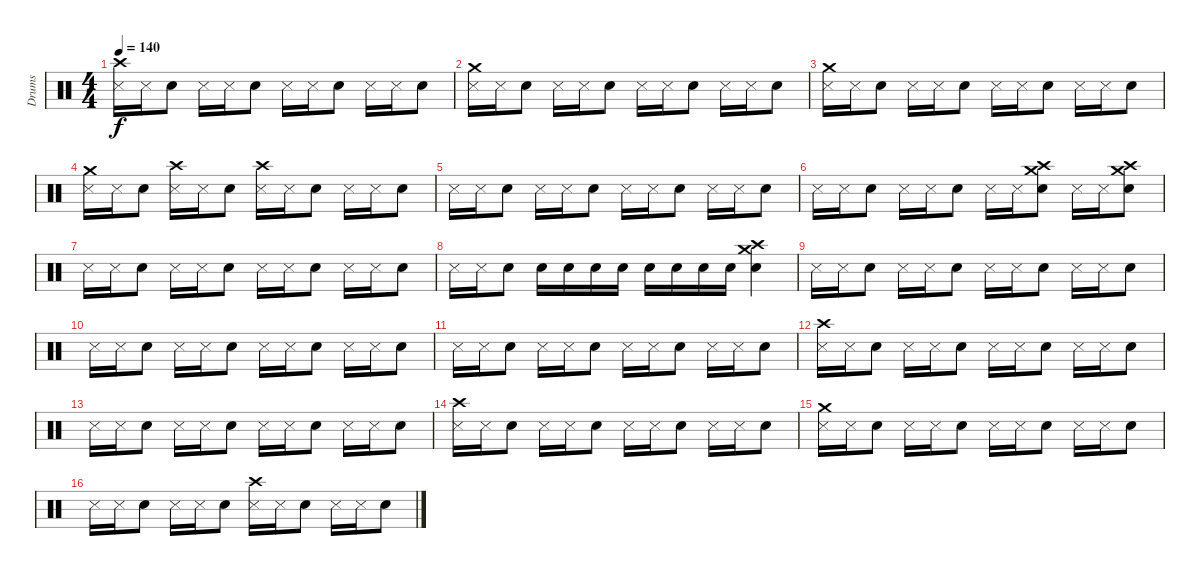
\track ("Drums" "Drums") {instrument percussion}
\staff {score}
\articulation defaults
\ts (4 4)
\tempo 140
\clef neutral
\ks c
("Crash high (hit)" "Metronome (hit)").16{dy f} "Metronome (hit)".16 "Electric Snare (hit)".8 "Metronome (hit)".16 "Metronome (hit)".16 "Electric Snare (hit)".8 "Metronome (hit)".16 "Metronome (hit)".16 "Electric Snare (hit)".8 "Metronome (hit)".16 "Metronome (hit)".16 "Electric Snare (hit)".8 |
("Crash medium (hit)" "Metronome (hit)").16 "Metronome (hit)".16 "Electric Snare (hit)".8 "Metronome (hit)".16 "Metronome (hit)".16 "Electric Snare (hit)".8 "Metronome (hit)".16 "Metronome (hit)".16 "Electric Snare (hit)".8 "Metronome (hit)".16 "Metronome (hit)".16 "Electric Snare (hit)".8 |
("Crash medium (hit)" "Metronome (hit)").16 "Metronome (hit)".16 "Electric Snare (hit)".8 "Metronome (hit)".16 "Metronome (hit)".16 "Electric Snare (hit)".8 "Metronome (hit)".16 "Metronome (hit)".16 "Electric Snare (hit)".8 "Metronome (hit)".16 "Metronome (hit)".16 "Electric Snare (hit)".8 |
("Crash medium (hit)" "Metronome (hit)").16 "Metronome (hit)".16 "Electric Snare (hit)".8 ("Crash high (hit)" "Metronome (hit)").16 "Metronome (hit)".16 "Electric Snare (hit)".8 ("Crash high (hit)" "Metronome (hit)").16 "Metronome (hit)".16 "Electric Snare (hit)".8 "Metronome (hit)".16 "Metronome (hit)".16 "Electric Snare (hit)".8 |
"Metronome (hit)".16 "Metronome (hit)".16 "Electric Snare (hit)".8 "Metronome (hit)".16 "Metronome (hit)".16 "Electric Snare (hit)".8 "Metronome (hit)".16 "Metronome (hit)".16 "Electric Snare (hit)".8 "Metronome (hit)".16 "Metronome (hit)".16 "Electric Snare (hit)".8 |
"Metronome (hit)".16 "Metronome (hit)".16 "Electric Snare (hit)".8 "Metronome (hit)".16 "Metronome (hit)".16 "Electric Snare (hit)".8 "Metronome (hit)".16 "Metronome (hit)".16 ("Crash medium (hit)" "Crash high (hit)" "Electric Snare (hit)").8 "Metronome (hit)".16 "Metronome (hit)".16 ("Crash medium (hit)" "Crash high (hit)" "Electric Snare (hit)").8 |
"Metronome (hit)".16 "Metronome (hit)".16 "Electric Snare (hit)".8 "Metronome (hit)".16 "Metronome (hit)".16 "Electric Snare (hit)".8 "Metronome (hit)".16 "Metronome (hit)".16 "Electric Snare (hit)".8 "Metronome (hit)".16 "Metronome (hit)".16 "Electric Snare (hit)".8 |
"Metronome (hit)".16 "Metronome (hit)".16 "Electric Snare (hit)".8 "Electric Snare (hit)".16 "Electric Snare (hit)".16 "Electric Snare (hit)".16 "Electric Snare (hit)".16 "Electric Snare (hit)".16 "Electric Snare (hit)".16 "Electric Snare (hit)".16 "Electric Snare (hit)".16 ("Crash medium (hit)" "Crash high (hit)" "Electric Snare (hit)").4 |
"Metronome (hit)".16 "Metronome (hit)".16 "Electric Snare (hit)".8 "Metronome (hit)".16 "Metronome (hit)".16 "Electric Snare (hit)".8 "Metronome (hit)".16 "Metronome (hit)".16 "Electric Snare (hit)".8 "Metronome (hit)".16 "Metronome (hit)".16 "Electric Snare (hit)".8 |
"Metronome (hit)".16 "Metronome (hit)".16 "Electric Snare (hit)".8 "Metronome (hit)".16 "Metronome (hit)".16 "Electric Snare (hit)".8 "Metronome (hit)".16 "Metronome (hit)".16 "Electric Snare (hit)".8 "Metronome (hit)".16 "Metronome (hit)".16 "Electric Snare (hit)".8 |
"Metronome (hit)".16 "Metronome (hit)".16 "Electric Snare (hit)".8 "Metronome (hit)".16 "Metronome (hit)".16 "Electric Snare (hit)".8 "Metronome (hit)".16 "Metronome (hit)".16 "Electric Snare (hit)".8 "Metronome (hit)".16 "Metronome (hit)".16 "Electric Snare (hit)".8 |
("Crash high (hit)" "Metronome (hit)").16 "Metronome (hit)".16 "Electric Snare (hit)".8 "Metronome (hit)".16 "Metronome (hit)".16 "Electric Snare (hit)".8 "Metronome (hit)".16 "Metronome (hit)".16 "Electric Snare (hit)".8 "Metronome (hit)".16 "Metronome (hit)".16 "Electric Snare (hit)".8 |
"Metronome (hit)".16 "Metronome (hit)".16 "Electric Snare (hit)".8 "Metronome (hit)".16 "Metronome (hit)".16 "Electric Snare (hit)".8 "Metronome (hit)".16 "Metronome (hit)".16 "Electric Snare (hit)".8 "Metronome (hit)".16 "Metronome (hit)".16 "Electric Snare (hit)".8 |
("Crash high (hit)" "Metronome (hit)").16 "Metronome (hit)".16 "Electric Snare (hit)".8 "Metronome (hit)".16 "Metronome (hit)".16 "Electric Snare (hit)".8 "Metronome (hit)".16 "Metronome (hit)".16 "Electric Snare (hit)".8 "Metronome (hit)".16 "Metronome (hit)".16 "Electric Snare (hit)".8 |
("Crash medium (hit)" "Metronome (hit)").16 "Metronome (hit)".16 "Electric Snare (hit)".8 "Metronome (hit)".16 "Metronome (hit)".16 "Electric Snare (hit)".8 "Metronome (hit)".16 "Metronome (hit)".16 "Electric Snare (hit)".8 "Metronome (hit)".16 "Metronome (hit)".16 "Electric Snare (hit)".8 |
"Metronome (hit)".16 "Metronome (hit)".16 "Electric Snare (hit)".8 "Metronome (hit)".16 "Metronome (hit)".16 "Electric Snare (hit)".8 ("Crash high (hit)" "Metronome (hit)").16 "Metronome (hit)".16 "Electric Snare (hit)".8 "Metronome (hit)".16 "Metronome (hit)".16 "Electric Snare (hit)".8
